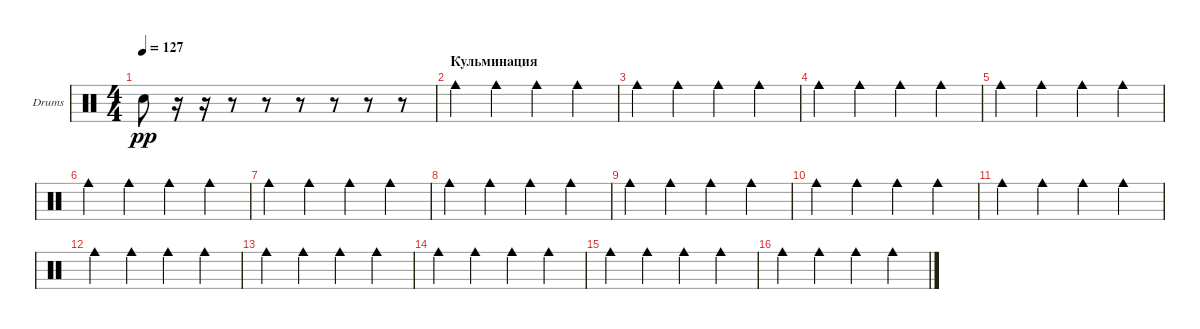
\defaultSystemsLayout 4
\bracketExtendMode groupsimilarinstruments
\firstSystemTrackNameOrientation horizontal
\otherSystemsTrackNameOrientation horizontal
\track ("Drumkit" "Drums") {instrument percussion}
\staff {score}
\articulation defaults
\ts (4 4)
\tempo 127
\clef neutral
\ks c "Snare (hit) 2".8{dy pp}
r.16 r.16 r.8 r.8 r.8 r.8 r.8 r.8 |
\section ("" "Кульминация")
"Cowbell medium (hit)".4 "Cowbell medium (hit)".4 "Cowbell medium (hit)".4 "Cowbell medium (hit)".4 |
"Cowbell medium (hit)".4 "Cowbell medium (hit)".4 "Cowbell medium (hit)".4 "Cowbell medium (hit)".4 |
"Cowbell medium (hit)".4 "Cowbell medium (hit)".4 "Cowbell medium (hit)".4 "Cowbell medium (hit)".4 |
"Cowbell medium (hit)".4 "Cowbell medium (hit)".4 "Cowbell medium (hit)".4 "Cowbell medium (hit)".4 |
"Cowbell medium (hit)".4 "Cowbell medium (hit)".4 "Cowbell medium (hit)".4 "Cowbell medium (hit)".4 |
"Cowbell medium (hit)".4 "Cowbell medium (hit)".4 "Cowbell medium (hit)".4 "Cowbell medium (hit)".4 |
"Cowbell medium (hit)".4 "Cowbell medium (hit)".4 "Cowbell medium (hit)".4 "Cowbell medium (hit)".4 |
"Cowbell medium (hit)".4 "Cowbell medium (hit)".4 "Cowbell medium (hit)".4 "Cowbell medium (hit)".4 |
"Cowbell medium (hit)".4 "Cowbell medium (hit)".4 "Cowbell medium (hit)".4 "Cowbell medium (hit)".4 |
"Cowbell medium (hit)".4 "Cowbell medium (hit)".4 "Cowbell medium (hit)".4 "Cowbell medium (hit)".4 |
"Cowbell medium (hit)".4 "Cowbell medium (hit)".4 "Cowbell medium (hit)".4 "Cowbell medium (hit)".4 |
"Cowbell medium (hit)".4 "Cowbell medium (hit)".4 "Cowbell medium (hit)".4 "Cowbell medium (hit)".4 |
"Cowbell medium (hit)".4 "Cowbell medium (hit)".4 "Cowbell medium (hit)".4 "Cowbell medium (hit)".4 |
"Cowbell medium (hit)".4 "Cowbell medium (hit)".4 "Cowbell medium (hit)".4 "Cowbell medium (hit)".4 |
"Cowbell medium (hit)".4 "Cowbell medium (hit)".4 "Cowbell medium (hit)".4 "Cowbell medium (hit)".4
